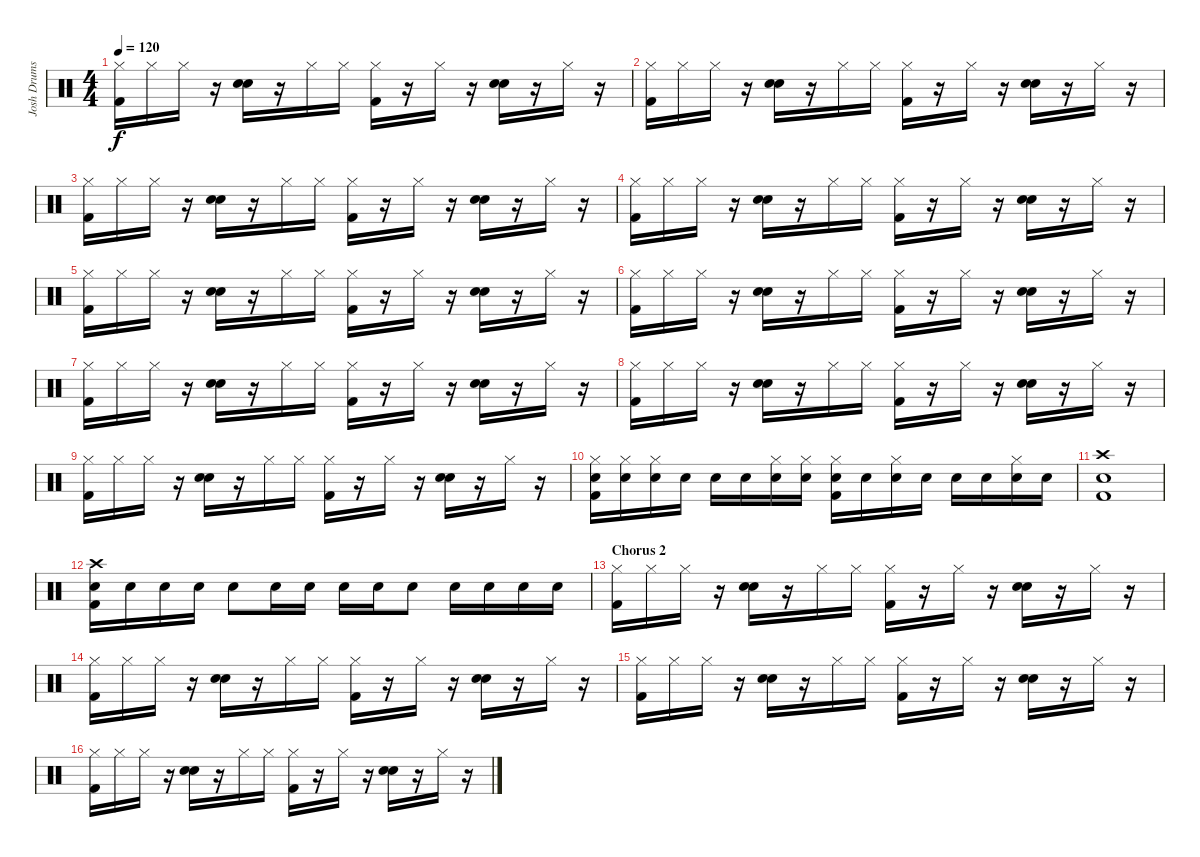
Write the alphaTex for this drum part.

\track ("Josh Drums" "Josh Drums") {instrument percussion}
\staff {score}
\articulation defaults
\ts (4 4)
\tempo 120
\clef neutral
\ks c
("Hi-Hat (closed)" "Kick (hit) 2").16{dy f} "Hi-Hat (closed)".16 "Hi-Hat (closed)".16 r.16 ("Hand Clap (hit)" "Hand Clap (hit)").16 r.16 "Hi-Hat (closed)".16 "Hi-Hat (closed)".16 ("Hi-Hat (closed)" "Kick (hit) 2").16 r.16 "Hi-Hat (closed)".16 r.16 ("Hand Clap (hit)" "Hand Clap (hit)").16 r.16 "Hi-Hat (closed)".16 r.16 |
("Hi-Hat (closed)" "Kick (hit) 2").16 "Hi-Hat (closed)".16 "Hi-Hat (closed)".16 r.16 ("Hand Clap (hit)" "Hand Clap (hit)").16 r.16 "Hi-Hat (closed)".16 "Hi-Hat (closed)".16 ("Hi-Hat (closed)" "Kick (hit) 2").16 r.16 "Hi-Hat (closed)".16 r.16 ("Hand Clap (hit)" "Hand Clap (hit)").16 r.16 "Hi-Hat (closed)".16 r.16 |
("Hi-Hat (closed)" "Kick (hit) 2").16 "Hi-Hat (closed)".16 "Hi-Hat (closed)".16 r.16 ("Hand Clap (hit)" "Hand Clap (hit)").16 r.16 "Hi-Hat (closed)".16 "Hi-Hat (closed)".16 ("Hi-Hat (closed)" "Kick (hit) 2").16 r.16 "Hi-Hat (closed)".16 r.16 ("Hand Clap (hit)" "Hand Clap (hit)").16 r.16 "Hi-Hat (closed)".16 r.16 |
("Hi-Hat (closed)" "Kick (hit) 2").16 "Hi-Hat (closed)".16 "Hi-Hat (closed)".16 r.16 ("Hand Clap (hit)" "Hand Clap (hit)").16 r.16 "Hi-Hat (closed)".16 "Hi-Hat (closed)".16 ("Hi-Hat (closed)" "Kick (hit) 2").16 r.16 "Hi-Hat (closed)".16 r.16 ("Hand Clap (hit)" "Hand Clap (hit)").16 r.16 "Hi-Hat (closed)".16 r.16 |
("Hi-Hat (closed)" "Kick (hit) 2").16 "Hi-Hat (closed)".16 "Hi-Hat (closed)".16 r.16 ("Hand Clap (hit)" "Hand Clap (hit)").16 r.16 "Hi-Hat (closed)".16 "Hi-Hat (closed)".16 ("Hi-Hat (closed)" "Kick (hit) 2").16 r.16 "Hi-Hat (closed)".16 r.16 ("Hand Clap (hit)" "Hand Clap (hit)").16 r.16 "Hi-Hat (closed)".16 r.16 |
("Hi-Hat (closed)" "Kick (hit) 2").16 "Hi-Hat (closed)".16 "Hi-Hat (closed)".16 r.16 ("Hand Clap (hit)" "Hand Clap (hit)").16 r.16 "Hi-Hat (closed)".16 "Hi-Hat (closed)".16 ("Hi-Hat (closed)" "Kick (hit) 2").16 r.16 "Hi-Hat (closed)".16 r.16 ("Hand Clap (hit)" "Hand Clap (hit)").16 r.16 "Hi-Hat (closed)".16 r.16 |
("Hi-Hat (closed)" "Kick (hit) 2").16 "Hi-Hat (closed)".16 "Hi-Hat (closed)".16 r.16 ("Hand Clap (hit)" "Hand Clap (hit)").16 r.16 "Hi-Hat (closed)".16 "Hi-Hat (closed)".16 ("Hi-Hat (closed)" "Kick (hit) 2").16 r.16 "Hi-Hat (closed)".16 r.16 ("Hand Clap (hit)" "Hand Clap (hit)").16 r.16 "Hi-Hat (closed)".16 r.16 |
("Hi-Hat (closed)" "Kick (hit) 2").16 "Hi-Hat (closed)".16 "Hi-Hat (closed)".16 r.16 ("Hand Clap (hit)" "Hand Clap (hit)").16 r.16 "Hi-Hat (closed)".16 "Hi-Hat (closed)".16 ("Hi-Hat (closed)" "Kick (hit) 2").16 r.16 "Hi-Hat (closed)".16 r.16 ("Hand Clap (hit)" "Hand Clap (hit)").16 r.16 "Hi-Hat (closed)".16 r.16 |
("Hi-Hat (closed)" "Kick (hit) 2").16 "Hi-Hat (closed)".16 "Hi-Hat (closed)".16 r.16 ("Hand Clap (hit)" "Hand Clap (hit)").16 r.16 "Hi-Hat (closed)".16 "Hi-Hat (closed)".16 ("Hi-Hat (closed)" "Kick (hit) 2").16 r.16 "Hi-Hat (closed)".16 r.16 ("Hand Clap (hit)" "Hand Clap (hit)").16 r.16 "Hi-Hat (closed)".16 r.16 |
("Hi-Hat (closed)" "Electric Snare (hit)" "Kick (hit) 2").16 ("Hi-Hat (closed)" "Electric Snare (hit)").16 ("Hi-Hat (closed)" "Electric Snare (hit)").16 "Electric Snare (hit)".16 "Electric Snare (hit)".16 "Electric Snare (hit)".16 ("Hi-Hat (closed)" "Electric Snare (hit)").16 ("Hi-Hat (closed)" "Electric Snare (hit)").16 ("Hi-Hat (closed)" "Electric Snare (hit)" "Kick (hit) 2").16 "Electric Snare (hit)".16 ("Hi-Hat (closed)" "Electric Snare (hit)").16 "Electric Snare (hit)".16 "Electric Snare (hit)".16 "Electric Snare (hit)".16 ("Hi-Hat (closed)" "Electric Snare (hit)").16 "Electric Snare (hit)".16 |
("Crash high (hit)" "Electric Snare (hit)" "Kick (hit) 2").1 |
("Crash high (hit)" "Electric Snare (hit)" "Kick (hit) 2").16 "Electric Snare (hit)".16 "Electric Snare (hit)".16 "Electric Snare (hit)".16 "Electric Snare (hit)".8 "Electric Snare (hit)".16 "Electric Snare (hit)".16 "Electric Snare (hit)".16 "Electric Snare (hit)".16 "Electric Snare (hit)".8 "Electric Snare (hit)".16 "Electric Snare (hit)".16 "Electric Snare (hit)".16 "Electric Snare (hit)".16 |
\section ("" "Chorus 2")
("Hi-Hat (closed)" "Kick (hit) 2").16 "Hi-Hat (closed)".16 "Hi-Hat (closed)".16 r.16 ("Hand Clap (hit)" "Hand Clap (hit)").16 r.16 "Hi-Hat (closed)".16 "Hi-Hat (closed)".16 ("Hi-Hat (closed)" "Kick (hit) 2").16 r.16 "Hi-Hat (closed)".16 r.16 ("Hand Clap (hit)" "Hand Clap (hit)").16 r.16 "Hi-Hat (closed)".16 r.16 |
("Hi-Hat (closed)" "Kick (hit) 2").16 "Hi-Hat (closed)".16 "Hi-Hat (closed)".16 r.16 ("Hand Clap (hit)" "Hand Clap (hit)").16 r.16 "Hi-Hat (closed)".16 "Hi-Hat (closed)".16 ("Hi-Hat (closed)" "Kick (hit) 2").16 r.16 "Hi-Hat (closed)".16 r.16 ("Hand Clap (hit)" "Hand Clap (hit)").16 r.16 "Hi-Hat (closed)".16 r.16 |
("Hi-Hat (closed)" "Kick (hit) 2").16 "Hi-Hat (closed)".16 "Hi-Hat (closed)".16 r.16 ("Hand Clap (hit)" "Hand Clap (hit)").16 r.16 "Hi-Hat (closed)".16 "Hi-Hat (closed)".16 ("Hi-Hat (closed)" "Kick (hit) 2").16 r.16 "Hi-Hat (closed)".16 r.16 ("Hand Clap (hit)" "Hand Clap (hit)").16 r.16 "Hi-Hat (closed)".16 r.16 |
("Hi-Hat (closed)" "Kick (hit) 2").16 "Hi-Hat (closed)".16 "Hi-Hat (closed)".16 r.16 ("Hand Clap (hit)" "Hand Clap (hit)").16 r.16 "Hi-Hat (closed)".16 "Hi-Hat (closed)".16 ("Hi-Hat (closed)" "Kick (hit) 2").16 r.16 "Hi-Hat (closed)".16 r.16 ("Hand Clap (hit)" "Hand Clap (hit)").16 r.16 "Hi-Hat (closed)".16 r.16
